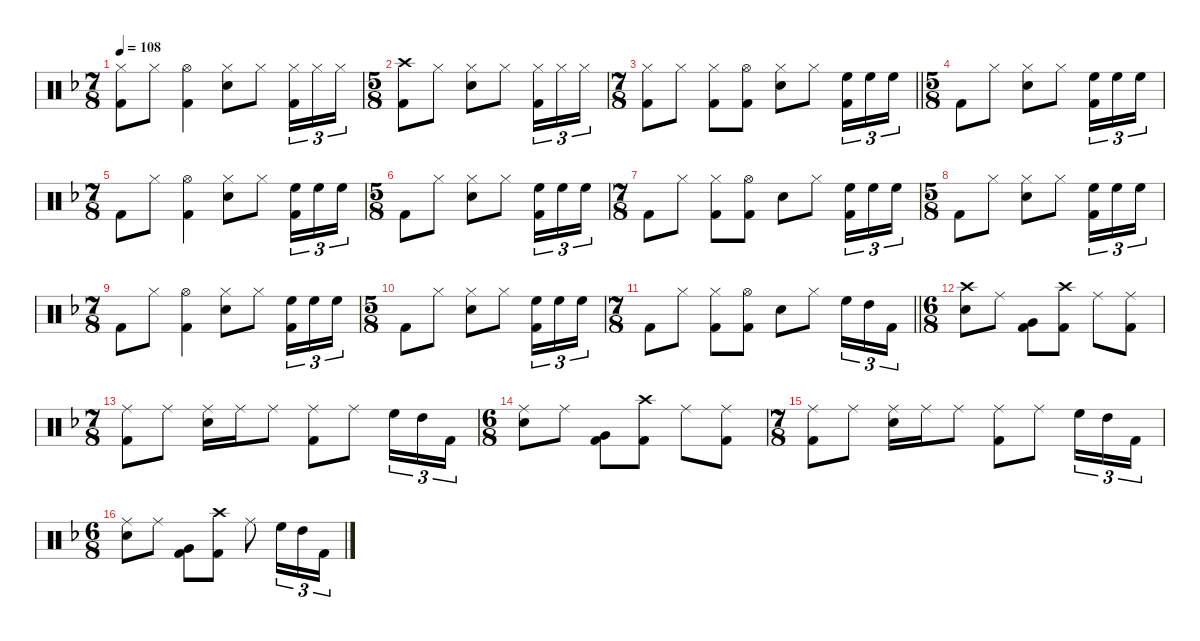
\defaultSystemsLayout 4
\hideDynamics
\bracketExtendMode nobrackets
\singleTrackTrackNamePolicy hidden
\multiTrackTrackNamePolicy hidden
\firstSystemTrackNameMode fullname
\firstSystemTrackNameOrientation horizontal
\otherSystemsTrackNameOrientation horizontal
\track ("Danny Carey" "drm.") {defaultSystemsLayout 4 instrument percussion}
\staff {score}
\articulation defaults
\ts (7 8)
\beaming (8 2 2 2 2)
\tempo 108
\clef neutral
\ks dminor
("Hi-Hat (closed)"{acc forcenatural} "Kick (hit) 2"{acc forcenatural}).8{dy f beam Down} "Hi-Hat (closed)"{acc forcenatural}.8{beam Down} ("Hi-Hat (open)"{acc forcenatural} "Kick (hit) 2"{acc forcenatural}).4{beam Down} ("Hi-Hat (closed)"{acc forcenatural} "Snare (hit) 2"{acc forcenatural}).8{beam Down} "Hi-Hat (closed)"{acc forcenatural}.8{beam Down} ("Hi-Hat (closed)"{acc forcenatural} "Kick (hit) 2"{acc forcenatural}).16{tu (3 2) beam Down} "Hi-Hat (closed)"{acc forcenatural}.16{tu (3 2) beam Down} "Hi-Hat (closed)"{acc forcenatural}.16{tu (3 2) beam Down} |
\ts (5 8)
\beaming (8 2 2 2 2)
("Crash high (hit)"{acc forcenatural} "Kick (hit) 2"{acc forcenatural}).8{beam Down} "Hi-Hat (closed)"{acc forcenatural}.8{beam Down} ("Hi-Hat (closed)"{acc forcenatural} "Snare (hit) 2"{acc forcenatural}).8{beam Down} "Hi-Hat (closed)"{acc forcenatural}.8{beam Down} ("Hi-Hat (closed)"{acc forcenatural} "Kick (hit) 2"{acc forcenatural}).16{tu (3 2) beam Down} "Hi-Hat (closed)"{acc forcenatural}.16{tu (3 2) beam Down} "Hi-Hat (closed)"{acc forcenatural}.16{tu (3 2) beam Down} |
\ts (7 8)
\beaming (8 2 2 2 2)
\barLineRight lightlight
("Hi-Hat (closed)"{acc forcenatural} "Kick (hit) 2"{acc forcenatural}).8{beam Down} "Hi-Hat (closed)"{acc forcenatural}.8{beam Down} ("Hi-Hat (closed)"{acc forcenatural} "Kick (hit) 2"{acc forcenatural}).8{beam Down} ("Hi-Hat (open)"{acc forcenatural} "Kick (hit) 2"{acc forcenatural}).8{beam Down} ("Hi-Hat (closed)"{acc forcenatural} "Snare (hit) 2"{acc forcenatural}).8{beam Down} "Hi-Hat (closed)"{acc forcenatural}.8{beam Down} ("High Floor Tom (hit)"{acc forcenatural} "Kick (hit) 2"{acc forcenatural}).16{tu (3 2) beam Down} "High Floor Tom (hit)"{acc forcenatural}.16{tu (3 2) beam Down} "High Floor Tom (hit)"{acc forcenatural}.16{tu (3 2) beam Down} |
\ts (5 8)
\beaming (8 2 2 2 2)
"Kick (hit) 2"{acc forcenatural}.8{beam Down} "Hi-Hat (closed)"{acc forcenatural}.8{beam Down} ("Hi-Hat (closed)"{acc forcenatural} "Snare (hit) 2"{acc forcenatural}).8{beam Down} "Hi-Hat (closed)"{acc forcenatural}.8{beam Down} ("High Floor Tom (hit)"{acc forcenatural} "Kick (hit) 2"{acc forcenatural}).16{tu (3 2) beam Down} "High Floor Tom (hit)"{acc forcenatural}.16{tu (3 2) beam Down} "High Floor Tom (hit)"{acc forcenatural}.16{tu (3 2) beam Down} |
\ts (7 8)
\beaming (8 2 2 2 2)
"Kick (hit) 2"{acc forcenatural}.8{beam Down} "Hi-Hat (closed)"{acc forcenatural}.8{beam Down} ("Hi-Hat (open)"{acc forcenatural} "Kick (hit) 2"{acc forcenatural}).4{beam Down} ("Hi-Hat (closed)"{acc forcenatural} "Snare (hit) 2"{acc forcenatural}).8{beam Down} "Hi-Hat (closed)"{acc forcenatural}.8{beam Down} ("High Floor Tom (hit)"{acc forcenatural} "Kick (hit) 2"{acc forcenatural}).16{tu (3 2) beam Down} "High Floor Tom (hit)"{acc forcenatural}.16{tu (3 2) beam Down} "High Floor Tom (hit)"{acc forcenatural}.16{tu (3 2) beam Down} |
\ts (5 8)
\beaming (8 2 2 2 2)
"Kick (hit) 2"{acc forcenatural}.8{beam Down} "Hi-Hat (closed)"{acc forcenatural}.8{beam Down} ("Hi-Hat (closed)"{acc forcenatural} "Snare (hit) 2"{acc forcenatural}).8{beam Down} "Hi-Hat (closed)"{acc forcenatural}.8{beam Down} ("High Floor Tom (hit)"{acc forcenatural} "Kick (hit) 2"{acc forcenatural}).16{tu (3 2) beam Down} "High Floor Tom (hit)"{acc forcenatural}.16{tu (3 2) beam Down} "High Floor Tom (hit)"{acc forcenatural}.16{tu (3 2) beam Down} |
\ts (7 8)
\beaming (8 2 2 2 2)
"Kick (hit) 2"{acc forcenatural}.8{beam Down} "Hi-Hat (closed)"{acc forcenatural}.8{beam Down} ("Hi-Hat (closed)"{acc forcenatural} "Kick (hit) 2"{acc forcenatural}).8{beam Down} ("Hi-Hat (open)"{acc forcenatural} "Kick (hit) 2"{acc forcenatural}).8{beam Down} "Snare (hit) 2"{acc forcenatural}.8{beam Down} "Hi-Hat (closed)"{acc forcenatural}.8{beam Down} ("High Floor Tom (hit)"{acc forcenatural} "Kick (hit) 2"{acc forcenatural}).16{tu (3 2) beam Down} "High Floor Tom (hit)"{acc forcenatural}.16{tu (3 2) beam Down} "High Floor Tom (hit)"{acc forcenatural}.16{tu (3 2) beam Down} |
\ts (5 8)
\beaming (8 2 2 2 2)
"Kick (hit) 2"{acc forcenatural}.8{beam Down} "Hi-Hat (closed)"{acc forcenatural}.8{beam Down} ("Hi-Hat (closed)"{acc forcenatural} "Snare (hit) 2"{acc forcenatural}).8{beam Down} "Hi-Hat (closed)"{acc forcenatural}.8{beam Down} ("High Floor Tom (hit)"{acc forcenatural} "Kick (hit) 2"{acc forcenatural}).16{tu (3 2) beam Down} "High Floor Tom (hit)"{acc forcenatural}.16{tu (3 2) beam Down} "High Floor Tom (hit)"{acc forcenatural}.16{tu (3 2) beam Down} |
\ts (7 8)
\beaming (8 2 2 2 2)
"Kick (hit) 2"{acc forcenatural}.8{beam Down} "Hi-Hat (closed)"{acc forcenatural}.8{beam Down} ("Hi-Hat (open)"{acc forcenatural} "Kick (hit) 2"{acc forcenatural}).4{beam Down} ("Hi-Hat (closed)"{acc forcenatural} "Snare (hit) 2"{acc forcenatural}).8{beam Down} "Hi-Hat (closed)"{acc forcenatural}.8{beam Down} ("High Floor Tom (hit)"{acc forcenatural} "Kick (hit) 2"{acc forcenatural}).16{tu (3 2) beam Down} "High Floor Tom (hit)"{acc forcenatural}.16{tu (3 2) beam Down} "High Floor Tom (hit)"{acc forcenatural}.16{tu (3 2) beam Down} |
\ts (5 8)
\beaming (8 2 2 2 2)
"Kick (hit) 2"{acc forcenatural}.8{beam Down} "Hi-Hat (closed)"{acc forcenatural}.8{beam Down} ("Hi-Hat (closed)"{acc forcenatural} "Snare (hit) 2"{acc forcenatural}).8{beam Down} "Hi-Hat (closed)"{acc forcenatural}.8{beam Down} ("High Floor Tom (hit)"{acc forcenatural} "Kick (hit) 2"{acc forcenatural}).16{tu (3 2) beam Down} "High Floor Tom (hit)"{acc forcenatural}.16{tu (3 2) beam Down} "High Floor Tom (hit)"{acc forcenatural}.16{tu (3 2) beam Down} |
\ts (7 8)
\beaming (8 2 2 2 2)
\barLineRight lightlight "Kick (hit) 2"{acc forcenatural}.8{beam Down} "Hi-Hat (closed)"{acc forcenatural}.8{beam Down}
("Hi-Hat (closed)"{acc forcenatural} "Kick (hit) 2"{acc forcenatural}).8{beam Down} ("Hi-Hat (open)"{acc forcenatural} "Kick (hit) 2"{acc forcenatural}).8{beam Down} "Snare (hit) 2"{acc forcenatural}.8{beam Down} "Hi-Hat (closed)"{acc forcenatural}.8{beam Down} "High Floor Tom (hit)"{acc forcenatural}.16{tu (3 2) beam Down} "High Tom (hit)"{acc forcenatural}.16{tu (3 2) beam Down} "Kick (hit) 2"{acc forcenatural}.16{tu (3 2) beam Down} |
\ts (6 8)
\beaming (8 2 2 2 2)
("Crash high (hit)"{acc forcenatural} "Snare (hit) 2"{acc forcenatural}).8{beam Down} "Ride (middle)"{acc forcenatural}.8{beam Down} ("Very Low Tom (hit)"{acc forcenatural} "Kick (hit) 2"{acc forcenatural}).8{beam Down} ("Crash high (hit)"{acc forcenatural} "Kick (hit) 2"{acc forcenatural}).8{beam Down} "Ride (middle)"{acc forcenatural}.8{beam Down} ("Ride (middle)"{acc forcenatural} "Kick (hit) 2"{acc forcenatural}).8{beam Down} |
\ts (7 8)
\beaming (8 2 2 2 2)
("Ride (middle)"{acc forcenatural} "Kick (hit) 2"{acc forcenatural}).8{beam Down} "Ride (middle)"{acc forcenatural}.8{beam Down} ("Ride (middle)"{acc forcenatural} "Snare (hit) 2"{acc forcenatural}).16{beam Down} "Ride (middle)"{acc forcenatural}.16{beam Down} "Ride (middle)"{acc forcenatural}.8{beam Down} ("Ride (middle)"{acc forcenatural} "Kick (hit) 2"{acc forcenatural}).8{beam Down} "Ride (middle)"{acc forcenatural}.8{beam Down} "High Floor Tom (hit)"{acc forcenatural}.16{tu (3 2) beam Down} "High Tom (hit)"{acc forcenatural}.16{tu (3 2) beam Down} "Kick (hit) 2"{acc forcenatural}.16{tu (3 2) beam Down} |
\ts (6 8)
\beaming (8 2 2 2 2)
("Ride (middle)"{acc forcenatural} "Snare (hit) 2"{acc forcenatural}).8{beam Down} "Ride (middle)"{acc forcenatural}.8{beam Down} ("Very Low Tom (hit)"{acc forcenatural} "Kick (hit) 2"{acc forcenatural}).8{beam Down} ("Crash high (hit)"{acc forcenatural} "Kick (hit) 2"{acc forcenatural}).8{beam Down} "Ride (middle)"{acc forcenatural}.8{beam Down} ("Ride (middle)"{acc forcenatural} "Kick (hit) 2"{acc forcenatural}).8{beam Down} |
\ts (7 8)
\beaming (8 2 2 2 2)
("Ride (middle)"{acc forcenatural} "Kick (hit) 2"{acc forcenatural}).8{beam Down} "Ride (middle)"{acc forcenatural}.8{beam Down} ("Ride (middle)"{acc forcenatural} "Snare (hit) 2"{acc forcenatural}).16{beam Down} "Ride (middle)"{acc forcenatural}.16{beam Down} "Ride (middle)"{acc forcenatural}.8{beam Down} ("Ride (middle)"{acc forcenatural} "Kick (hit) 2"{acc forcenatural}).8{beam Down} "Ride (middle)"{acc forcenatural}.8{beam Down} "High Floor Tom (hit)"{acc forcenatural}.16{tu (3 2) beam Down} "High Tom (hit)"{acc forcenatural}.16{tu (3 2) beam Down} "Kick (hit) 2"{acc forcenatural}.16{tu (3 2) beam Down} |
\ts (6 8)
\beaming (8 2 2 2 2)
("Ride (middle)"{acc forcenatural} "Snare (hit) 2"{acc forcenatural}).8{beam Down} "Ride (middle)"{acc forcenatural}.8{beam Down} ("Very Low Tom (hit)"{acc forcenatural} "Kick (hit) 2"{acc forcenatural}).8{beam Down} ("Crash high (hit)"{acc forcenatural} "Kick (hit) 2"{acc forcenatural}).8{beam Down} "Ride (middle)"{acc forcenatural}.8{beam Down} "High Floor Tom (hit)"{acc forcenatural}.16{tu (3 2) beam Down} "High Tom (hit)"{acc forcenatural}.16{tu (3 2) beam Down} "Kick (hit) 2"{acc forcenatural}.16{tu (3 2) beam Down}
